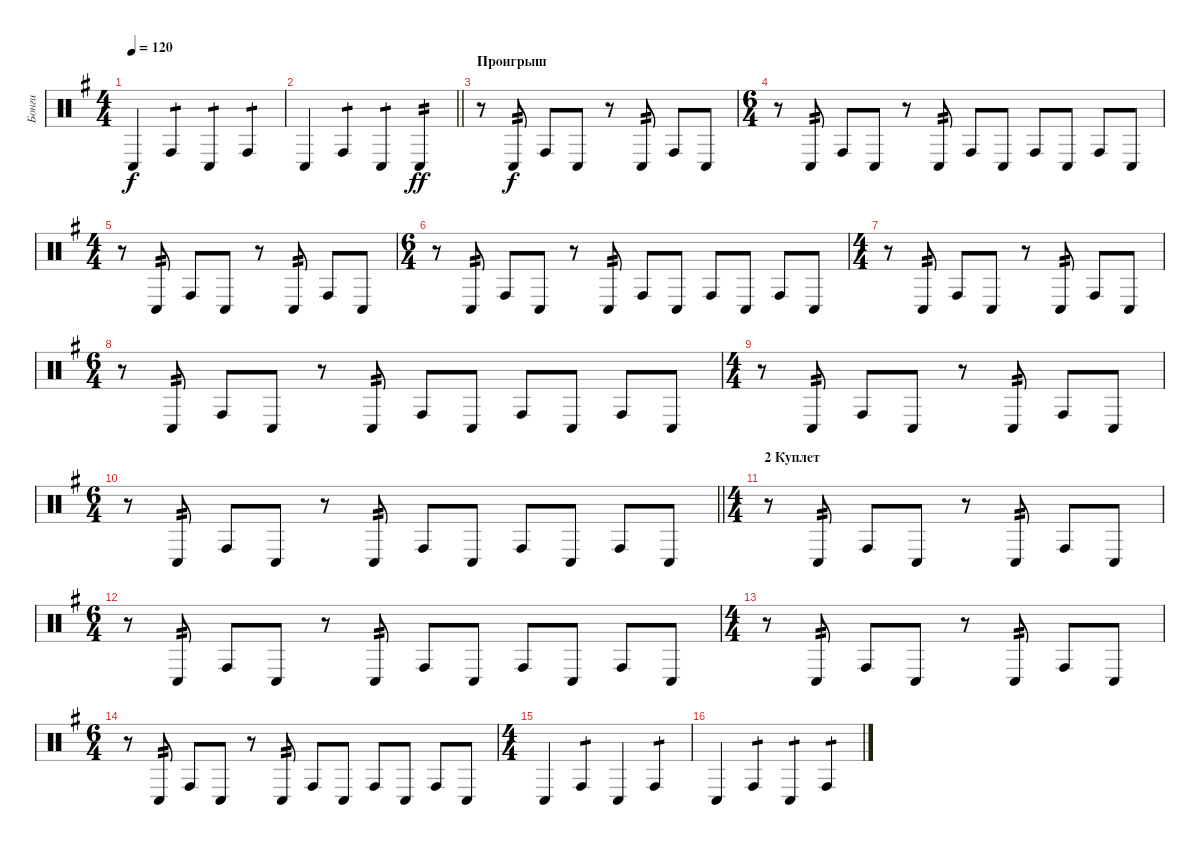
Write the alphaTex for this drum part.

\track ("Бонги" "Бонги") {instrument percussion}
\staff {score}
\articulation defaults
\ts (4 4)
\tempo 120
\clef neutral
\ks eminor "Conga low (hit)".4{dy f} "Conga high (hit)".4{tp 1} "Conga low (hit)".4{tp 1} "Conga high (hit)".4{tp 1}
|
\barLineRight lightlight "Conga low (hit)".4 "Conga high (hit)".4{tp 1} "Conga low (hit)".4{tp 1} "Conga low (hit)".4{tp 2 dy ff}
|
\section ("" "Проигрыш")
r.8 "Conga low (hit)".8{tp 2 dy f} "Conga high (hit)".8 "Conga low (hit)".8 r.8 "Conga low (hit)".8{tp 2} "Conga high (hit)".8 "Conga low (hit)".8 |
\ts (6 4)
r.8 "Conga low (hit)".8{tp 2} "Conga high (hit)".8 "Conga low (hit)".8 r.8 "Conga low (hit)".8{tp 2} "Conga high (hit)".8 "Conga low (hit)".8 "Conga high (hit)".8 "Conga low (hit)".8 "Conga high (hit)".8 "Conga low (hit)".8 |
\ts (4 4)
r.8 "Conga low (hit)".8{tp 2} "Conga high (hit)".8 "Conga low (hit)".8 r.8 "Conga low (hit)".8{tp 2} "Conga high (hit)".8 "Conga low (hit)".8 |
\ts (6 4)
r.8 "Conga low (hit)".8{tp 2} "Conga high (hit)".8 "Conga low (hit)".8 r.8 "Conga low (hit)".8{tp 2} "Conga high (hit)".8 "Conga low (hit)".8 "Conga high (hit)".8 "Conga low (hit)".8 "Conga high (hit)".8 "Conga low (hit)".8 |
\ts (4 4)
r.8 "Conga low (hit)".8{tp 2} "Conga high (hit)".8 "Conga low (hit)".8 r.8 "Conga low (hit)".8{tp 2} "Conga high (hit)".8 "Conga low (hit)".8 |
\ts (6 4)
r.8 "Conga low (hit)".8{tp 2} "Conga high (hit)".8 "Conga low (hit)".8 r.8 "Conga low (hit)".8{tp 2} "Conga high (hit)".8 "Conga low (hit)".8 "Conga high (hit)".8 "Conga low (hit)".8 "Conga high (hit)".8 "Conga low (hit)".8 |
\ts (4 4)
r.8 "Conga low (hit)".8{tp 2} "Conga high (hit)".8 "Conga low (hit)".8 r.8 "Conga low (hit)".8{tp 2} "Conga high (hit)".8 "Conga low (hit)".8 |
\ts (6 4)
\barLineRight lightlight
r.8 "Conga low (hit)".8{tp 2} "Conga high (hit)".8 "Conga low (hit)".8 r.8 "Conga low (hit)".8{tp 2} "Conga high (hit)".8 "Conga low (hit)".8 "Conga high (hit)".8 "Conga low (hit)".8 "Conga high (hit)".8 "Conga low (hit)".8 |
\ts (4 4)
\section ("" "2 Куплет")
r.8 "Conga low (hit)".8{tp 2} "Conga high (hit)".8 "Conga low (hit)".8 r.8 "Conga low (hit)".8{tp 2} "Conga high (hit)".8 "Conga low (hit)".8 |
\ts (6 4)
r.8 "Conga low (hit)".8{tp 2} "Conga high (hit)".8 "Conga low (hit)".8 r.8 "Conga low (hit)".8{tp 2} "Conga high (hit)".8 "Conga low (hit)".8 "Conga high (hit)".8 "Conga low (hit)".8 "Conga high (hit)".8 "Conga low (hit)".8 |
\ts (4 4)
r.8 "Conga low (hit)".8{tp 2} "Conga high (hit)".8 "Conga low (hit)".8 r.8 "Conga low (hit)".8{tp 2} "Conga high (hit)".8 "Conga low (hit)".8 |
\ts (6 4)
r.8 "Conga low (hit)".8{tp 2} "Conga high (hit)".8 "Conga low (hit)".8 r.8 "Conga low (hit)".8{tp 2} "Conga high (hit)".8 "Conga low (hit)".8 "Conga high (hit)".8 "Conga low (hit)".8 "Conga high (hit)".8 "Conga low (hit)".8 |
\ts (4 4)
"Conga low (hit)".4 "Conga high (hit)".4{tp 1} "Conga low (hit)".4 "Conga high (hit)".4{tp 1} |
"Conga low (hit)".4 "Conga high (hit)".4{tp 1} "Conga low (hit)".4{tp 1} "Conga high (hit)".4{tp 1}
